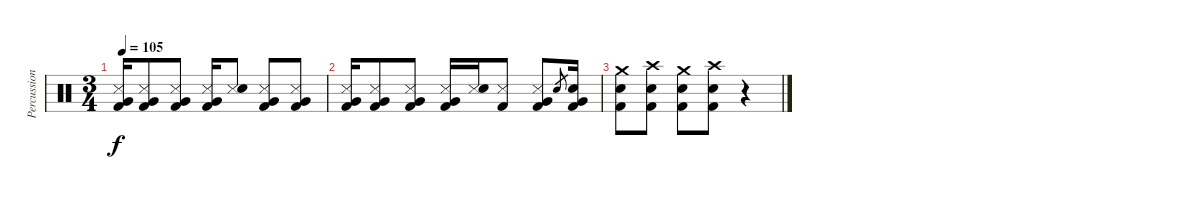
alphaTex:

\track ("Percussions" "Percussion") {instrument percussion}
\staff {score}
\articulation defaults
\ts (3 4)
\tempo 105
\clef neutral
\ks c
("Metronome (hit)" "Very Low Tom (hit)" "Kick (hit) 2").16{dy f} ("Metronome (hit)" "Very Low Tom (hit)" "Kick (hit) 2").8 ("Metronome (hit)" "Very Low Tom (hit)" "Kick (hit) 2").8 ("Metronome (hit)" "Very Low Tom (hit)" "Kick (hit) 2").16 ("Metronome (hit)" "Snare (hit) 2").8 ("Metronome (hit)" "Very Low Tom (hit)" "Kick (hit) 2").8 ("Metronome (hit)" "Very Low Tom (hit)" "Kick (hit) 2").8 |
("Metronome (hit)" "Very Low Tom (hit)" "Kick (hit) 2").16 ("Metronome (hit)" "Very Low Tom (hit)" "Kick (hit) 2").8 ("Metronome (hit)" "Very Low Tom (hit)" "Kick (hit) 2").8 ("Metronome (hit)" "Very Low Tom (hit)" "Kick (hit) 2").16 ("Metronome (hit)" "Snare (hit) 2").16 ("Metronome (hit)" "Kick (hit) 2").8 ("Metronome (hit)" "Very Low Tom (hit)" "Kick (hit) 2").8 "Snare (hit) 2".8{gr} ("Very Low Tom (hit)" "Kick (hit) 2" "Snare (hit) 2").16 |
("Crash medium (hit)" "Kick (hit) 2" "Snare (hit) 2").8 ("Crash high (hit)" "Kick (hit) 2" "Snare (hit) 2").8 ("Crash medium (hit)" "Kick (hit) 2" "Snare (hit) 2").8 ("Crash high (hit)" "Kick (hit) 2" "Snare (hit) 2").8 r.4
